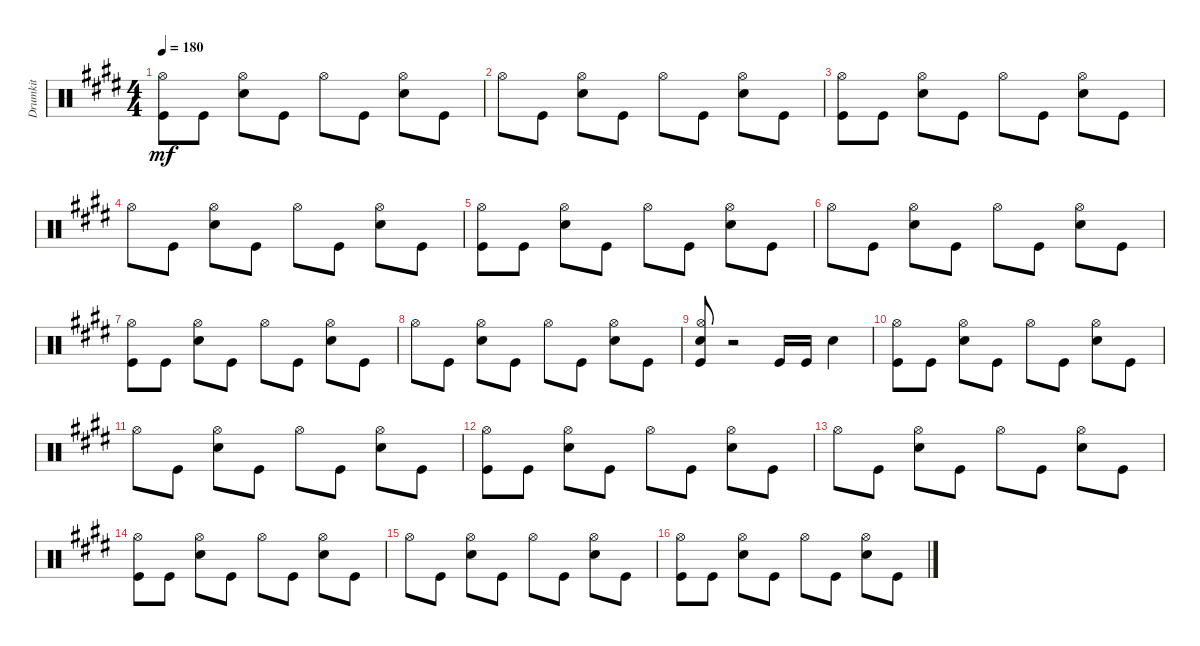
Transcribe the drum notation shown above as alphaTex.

\track ("Drumkit" "Drumkit") {instrument percussion}
\staff {score}
\articulation defaults
\ts (4 4)
\tempo 180
\clef neutral
\ks e
("Kick (hit)" "Hi-Hat (open)").8{dy mf} "Kick (hit)".8 ("Snare (hit) 2" "Hi-Hat (open)").8 "Kick (hit)".8 "Hi-Hat (open)".8 "Kick (hit)".8 ("Snare (hit) 2" "Hi-Hat (open)").8 "Kick (hit)".8 |
"Hi-Hat (open)".8 "Kick (hit)".8 ("Snare (hit) 2" "Hi-Hat (open)").8 "Kick (hit)".8 "Hi-Hat (open)".8 "Kick (hit)".8 ("Snare (hit) 2" "Hi-Hat (open)").8 "Kick (hit)".8 |
("Kick (hit)" "Hi-Hat (open)").8 "Kick (hit)".8 ("Snare (hit) 2" "Hi-Hat (open)").8 "Kick (hit)".8 "Hi-Hat (open)".8 "Kick (hit)".8 ("Snare (hit) 2" "Hi-Hat (open)").8 "Kick (hit)".8 |
"Hi-Hat (open)".8 "Kick (hit)".8 ("Snare (hit) 2" "Hi-Hat (open)").8 "Kick (hit)".8 "Hi-Hat (open)".8 "Kick (hit)".8 ("Snare (hit) 2" "Hi-Hat (open)").8 "Kick (hit)".8 |
("Kick (hit)" "Hi-Hat (open)").8 "Kick (hit)".8 ("Snare (hit) 2" "Hi-Hat (open)").8 "Kick (hit)".8 "Hi-Hat (open)".8 "Kick (hit)".8 ("Snare (hit) 2" "Hi-Hat (open)").8 "Kick (hit)".8 |
"Hi-Hat (open)".8 "Kick (hit)".8 ("Snare (hit) 2" "Hi-Hat (open)").8 "Kick (hit)".8 "Hi-Hat (open)".8 "Kick (hit)".8 ("Snare (hit) 2" "Hi-Hat (open)").8 "Kick (hit)".8 |
("Kick (hit)" "Hi-Hat (open)").8 "Kick (hit)".8 ("Snare (hit) 2" "Hi-Hat (open)").8 "Kick (hit)".8 "Hi-Hat (open)".8 "Kick (hit)".8 ("Snare (hit) 2" "Hi-Hat (open)").8 "Kick (hit)".8 |
"Hi-Hat (open)".8 "Kick (hit)".8 ("Snare (hit) 2" "Hi-Hat (open)").8 "Kick (hit)".8 "Hi-Hat (open)".8 "Kick (hit)".8 ("Snare (hit) 2" "Hi-Hat (open)").8 "Kick (hit)".8 |
("Kick (hit)" "Hi-Hat (open)" "Snare (hit) 2").8 r.2 "Kick (hit)".16 "Kick (hit)".16 "Snare (hit) 2".4 |
("Kick (hit)" "Hi-Hat (open)").8 "Kick (hit)".8 ("Snare (hit) 2" "Hi-Hat (open)").8 "Kick (hit)".8 "Hi-Hat (open)".8 "Kick (hit)".8 ("Snare (hit) 2" "Hi-Hat (open)").8 "Kick (hit)".8 |
"Hi-Hat (open)".8 "Kick (hit)".8 ("Snare (hit) 2" "Hi-Hat (open)").8 "Kick (hit)".8 "Hi-Hat (open)".8 "Kick (hit)".8 ("Snare (hit) 2" "Hi-Hat (open)").8 "Kick (hit)".8 |
("Kick (hit)" "Hi-Hat (open)").8 "Kick (hit)".8 ("Snare (hit) 2" "Hi-Hat (open)").8 "Kick (hit)".8 "Hi-Hat (open)".8 "Kick (hit)".8 ("Snare (hit) 2" "Hi-Hat (open)").8 "Kick (hit)".8 |
"Hi-Hat (open)".8 "Kick (hit)".8 ("Snare (hit) 2" "Hi-Hat (open)").8 "Kick (hit)".8 "Hi-Hat (open)".8 "Kick (hit)".8 ("Snare (hit) 2" "Hi-Hat (open)").8 "Kick (hit)".8 |
("Kick (hit)" "Hi-Hat (open)").8 "Kick (hit)".8 ("Snare (hit) 2" "Hi-Hat (open)").8 "Kick (hit)".8 "Hi-Hat (open)".8 "Kick (hit)".8 ("Snare (hit) 2" "Hi-Hat (open)").8 "Kick (hit)".8 |
"Hi-Hat (open)".8 "Kick (hit)".8 ("Snare (hit) 2" "Hi-Hat (open)").8 "Kick (hit)".8 "Hi-Hat (open)".8 "Kick (hit)".8 ("Snare (hit) 2" "Hi-Hat (open)").8 "Kick (hit)".8 |
("Kick (hit)" "Hi-Hat (open)").8 "Kick (hit)".8 ("Snare (hit) 2" "Hi-Hat (open)").8 "Kick (hit)".8 "Hi-Hat (open)".8 "Kick (hit)".8 ("Snare (hit) 2" "Hi-Hat (open)").8 "Kick (hit)".8
